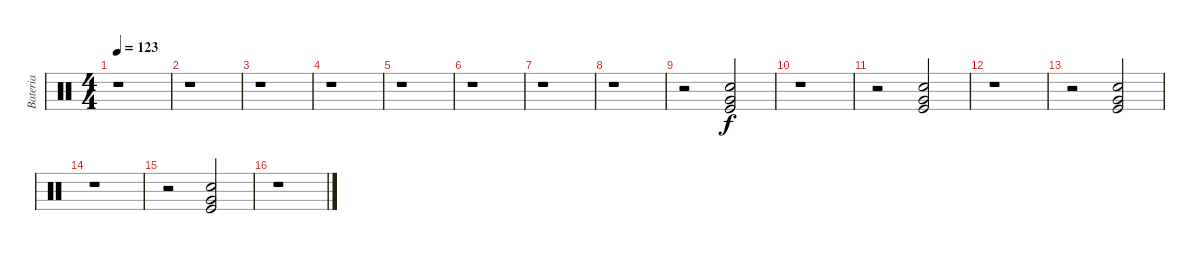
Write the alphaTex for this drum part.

\track ("Bateria" "Bateria") {instrument percussion}
\staff {score}
\articulation defaults
\ts (4 4)
\tempo 123
\clef neutral
\ks c
r.1{dy f} |
r.1 |
r.1 |
r.1 |
r.1 |
r.1 |
r.1 |
r.1 |
r.2 ("Snare (hit) 2" "Very Low Tom (hit)" "Kick (hit)").2 |
r.1 |
r.2 ("Snare (hit) 2" "Very Low Tom (hit)" "Kick (hit)").2 |
r.1 |
r.2 ("Snare (hit) 2" "Very Low Tom (hit)" "Kick (hit)").2 |
r.1 |
r.2 ("Snare (hit) 2" "Very Low Tom (hit)" "Kick (hit)").2 |
r.1
